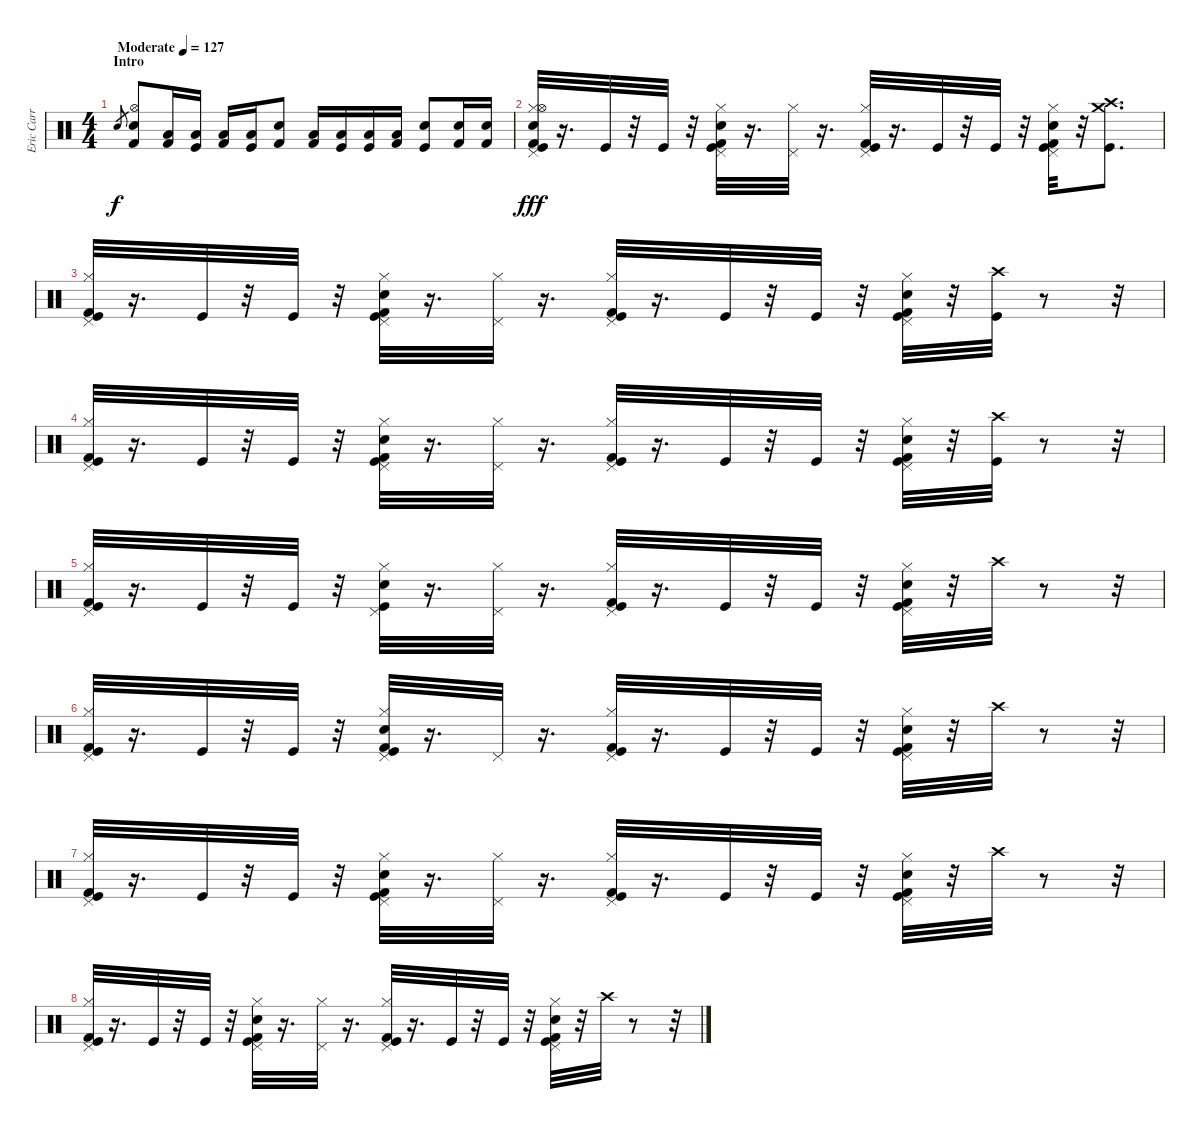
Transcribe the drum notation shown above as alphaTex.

\track ("Eric Carr - Bateria" "Eric Carr ") {instrument percussion}
\staff {score}
\articulation defaults
\ts (4 4)
\section ("" "Intro")
\tempo (127 "Moderate")
\clef neutral
\ks c "Snare (hit) 2".8{gr dy f}
("Hi-Hat (open)" "Snare (hit) 2" "Kick (hit) 2").8 ("Low Floor Tom (hit)" "Kick (hit) 2").16 ("Low Floor Tom (hit)" "Kick (hit)").16 ("Low Floor Tom (hit)" "Kick (hit) 2").16 ("Low Floor Tom (hit)" "Kick (hit)").16 ("Snare (hit) 2" "Kick (hit) 2").8 ("Low Floor Tom (hit)" "Kick (hit) 2").16 ("Low Floor Tom (hit)" "Kick (hit)").16 ("Low Floor Tom (hit)" "Kick (hit)").16 ("Low Floor Tom (hit)" "Kick (hit) 2").16 ("Snare (hit) 2" "Kick (hit)").8 ("Snare (hit) 2" "Kick (hit) 2").16 ("Snare (hit) 2" "Kick (hit) 2").16 |
("Hi-Hat (closed)" "Pedal Hi-Hat (hit)" "Hi-Hat (open)" "Kick (hit) 2" "Snare (hit) 2" "Kick (hit)").32{dy fff} r.16{d} "Kick (hit)".32{volume 16} r.32 "Kick (hit)".32 r.32 ("Hi-Hat (closed)" "Kick (hit) 2" "Kick (hit)" "Snare (hit) 2" "Pedal Hi-Hat (hit)").32 r.16{d} ("Hi-Hat (closed)" "Pedal Hi-Hat (hit)").32 r.16{d} ("Hi-Hat (closed)" "Pedal Hi-Hat (hit)" "Kick (hit) 2" "Kick (hit)").32 r.16{d} "Kick (hit)".32 r.32 "Kick (hit)".32 r.32 ("Hi-Hat (closed)" "Pedal Hi-Hat (hit)" "Snare (hit) 2" "Kick (hit)" "Kick (hit) 2").32 r.32 ("Crash medium (hit)" "Crash high (hit)" "Kick (hit)").8{d} |
("Hi-Hat (closed)" "Pedal Hi-Hat (hit)" "Kick (hit) 2" "Kick (hit)").32 r.16{d} "Kick (hit)".32 r.32 "Kick (hit)".32 r.32 ("Hi-Hat (closed)" "Pedal Hi-Hat (hit)" "Snare (hit) 2" "Kick (hit) 2" "Kick (hit)").32 r.16{d} ("Hi-Hat (closed)" "Pedal Hi-Hat (hit)").32 r.16{d} ("Hi-Hat (closed)" "Pedal Hi-Hat (hit)" "Kick (hit)" "Kick (hit) 2").32 r.16{d} "Kick (hit)".32 r.32 "Kick (hit)".32 r.32 ("Hi-Hat (closed)" "Pedal Hi-Hat (hit)" "Kick (hit)" "Snare (hit) 2" "Kick (hit) 2").32 r.32 ("Kick (hit)" "Crash high (hit)").32 r.8 r.32 |
("Pedal Hi-Hat (hit)" "Hi-Hat (closed)" "Kick (hit) 2" "Kick (hit)").32 r.16{d} "Kick (hit)".32 r.32 "Kick (hit)".32{volume 16} r.32 ("Hi-Hat (closed)" "Pedal Hi-Hat (hit)" "Kick (hit) 2" "Snare (hit) 2" "Kick (hit)").32 r.16{d} ("Hi-Hat (closed)" "Pedal Hi-Hat (hit)").32{volume 15} r.16{d} ("Kick (hit) 2" "Kick (hit)" "Hi-Hat (closed)" "Pedal Hi-Hat (hit)").32 r.16{d} "Kick (hit)".32 r.32 "Kick (hit)".32 r.32 ("Snare (hit) 2" "Kick (hit)" "Kick (hit) 2" "Hi-Hat (closed)" "Pedal Hi-Hat (hit)").32 r.32 ("Kick (hit)" "Crash high (hit)").32 r.8 r.32 |
("Kick (hit) 2" "Kick (hit)" "Hi-Hat (closed)" "Pedal Hi-Hat (hit)").32{volume 15} r.16{d} "Kick (hit)".32 r.32 "Kick (hit)".32 r.32 ("Kick (hit)" "Snare (hit) 2" "Hi-Hat (closed)" "Pedal Hi-Hat (hit)").32 r.16{d} ("Hi-Hat (closed)" "Pedal Hi-Hat (hit)").32 r.16{d} ("Hi-Hat (closed)" "Pedal Hi-Hat (hit)" "Kick (hit) 2" "Kick (hit)").32 r.16{d} "Kick (hit)".32 r.32 "Kick (hit)".32 r.32 ("Hi-Hat (closed)" "Pedal Hi-Hat (hit)" "Kick (hit)" "Kick (hit) 2" "Snare (hit) 2").32 r.32 "Crash high (hit)".32 r.8 r.32 |
("Kick (hit) 2" "Kick (hit)" "Hi-Hat (closed)" "Pedal Hi-Hat (hit)").32 r.16{d} "Kick (hit)".32 r.32 "Kick (hit)".32 r.32 ("Snare (hit) 2" "Kick (hit) 2" "Kick (hit)" "Hi-Hat (closed)" "Pedal Hi-Hat (hit)").32 r.16{d} "Pedal Hi-Hat (hit)".32 r.16{d} ("Kick (hit) 2" "Kick (hit)" "Hi-Hat (closed)" "Pedal Hi-Hat (hit)").32 r.16{d} "Kick (hit)".32 r.32 "Kick (hit)".32 r.32 ("Kick (hit)" "Kick (hit) 2" "Snare (hit) 2" "Hi-Hat (closed)" "Pedal Hi-Hat (hit)").32 r.32 "Crash high (hit)".32 r.8 r.32 |
("Hi-Hat (closed)" "Pedal Hi-Hat (hit)" "Kick (hit) 2" "Kick (hit)").32 r.16{d} "Kick (hit)".32 r.32 "Kick (hit)".32 r.32 ("Hi-Hat (closed)" "Pedal Hi-Hat (hit)" "Kick (hit) 2" "Kick (hit)" "Snare (hit) 2").32 r.16{d} ("Hi-Hat (closed)" "Pedal Hi-Hat (hit)").32 r.16{d} ("Kick (hit)" "Kick (hit) 2" "Hi-Hat (closed)" "Pedal Hi-Hat (hit)").32 r.16{d} "Kick (hit)".32 r.32 "Kick (hit)".32 r.32 ("Hi-Hat (closed)" "Pedal Hi-Hat (hit)" "Snare (hit) 2" "Kick (hit)" "Kick (hit) 2").32 r.32 "Crash high (hit)".32 r.8 r.32 |
("Kick (hit)" "Kick (hit) 2" "Hi-Hat (closed)" "Pedal Hi-Hat (hit)").32 r.16{d} "Kick (hit)".32 r.32 "Kick (hit)".32 r.32 ("Hi-Hat (closed)" "Pedal Hi-Hat (hit)" "Snare (hit) 2" "Kick (hit)" "Kick (hit) 2").32 r.16{d} ("Hi-Hat (closed)" "Pedal Hi-Hat (hit)").32 r.16{d} ("Kick (hit) 2" "Kick (hit)" "Hi-Hat (closed)" "Pedal Hi-Hat (hit)").32 r.16{d} "Kick (hit)".32 r.32 "Kick (hit)".32 r.32 ("Pedal Hi-Hat (hit)" "Hi-Hat (closed)" "Snare (hit) 2" "Kick (hit)" "Kick (hit) 2").32 r.32 "Crash high (hit)".32 r.8 r.32
